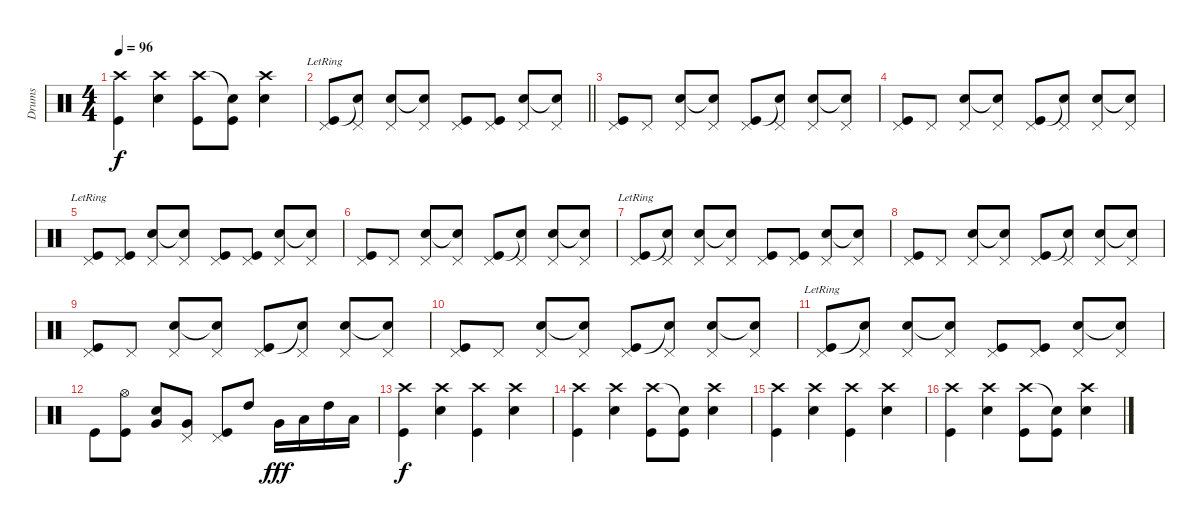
\track ("Drums" "Drums") {instrument percussion}
\staff {score}
\articulation defaults
\ts (4 4)
\tempo 96
\clef neutral
\ks c
("Kick (hit)" "Crash high (hit)").4{dy f} ("Snare (hit) 2" "Crash high (hit)").4 ("Kick (hit)" "Crash high (hit)").8 ("Kick (hit)" "Snare (hit)"{t}).8 ("Snare (hit) 2" "Crash high (hit)").4 |
\barLineRight lightlight
("Kick (hit)"{lr} "Pedal Hi-Hat (hit)").8 ("Snare (hit)"{t} "Pedal Hi-Hat (hit)").8 ("Snare (hit) 2" "Pedal Hi-Hat (hit)").8 ("Snare (hit)"{t} "Pedal Hi-Hat (hit)").8 ("Kick (hit)" "Pedal Hi-Hat (hit)").8 ("Kick (hit)" "Pedal Hi-Hat (hit)").8 ("Snare (hit) 2" "Pedal Hi-Hat (hit)").8 ("Snare (hit)"{t} "Pedal Hi-Hat (hit)").8 |
("Kick (hit)" "Pedal Hi-Hat (hit)").8 "Pedal Hi-Hat (hit)".8 ("Snare (hit) 2" "Pedal Hi-Hat (hit)").8 ("Snare (hit)"{t} "Pedal Hi-Hat (hit)").8 ("Kick (hit)" "Pedal Hi-Hat (hit)").8 ("Snare (hit)"{t} "Pedal Hi-Hat (hit)").8 ("Snare (hit) 2" "Pedal Hi-Hat (hit)").8 ("Snare (hit)"{t} "Pedal Hi-Hat (hit)").8 |
("Kick (hit)" "Pedal Hi-Hat (hit)").8 "Pedal Hi-Hat (hit)".8 ("Snare (hit) 2" "Pedal Hi-Hat (hit)").8 ("Snare (hit)"{t} "Pedal Hi-Hat (hit)").8 ("Kick (hit)" "Pedal Hi-Hat (hit)").8 ("Snare (hit)"{t} "Pedal Hi-Hat (hit)").8 ("Snare (hit) 2" "Pedal Hi-Hat (hit)").8 ("Snare (hit)"{t} "Pedal Hi-Hat (hit)").8 |
("Kick (hit)"{lr} "Pedal Hi-Hat (hit)").8 ("Kick (hit)" "Pedal Hi-Hat (hit)").8 ("Snare (hit) 2" "Pedal Hi-Hat (hit)").8 ("Snare (hit)"{t} "Pedal Hi-Hat (hit)").8 ("Kick (hit)" "Pedal Hi-Hat (hit)").8 ("Kick (hit)" "Pedal Hi-Hat (hit)").8 ("Snare (hit) 2" "Pedal Hi-Hat (hit)").8 ("Snare (hit)"{t} "Pedal Hi-Hat (hit)").8 |
("Kick (hit)" "Pedal Hi-Hat (hit)").8 "Pedal Hi-Hat (hit)".8 ("Snare (hit) 2" "Pedal Hi-Hat (hit)").8 ("Snare (hit)"{t} "Pedal Hi-Hat (hit)").8 ("Kick (hit)" "Pedal Hi-Hat (hit)").8 ("Snare (hit)"{t} "Pedal Hi-Hat (hit)").8 ("Snare (hit) 2" "Pedal Hi-Hat (hit)").8 ("Snare (hit)"{t} "Pedal Hi-Hat (hit)").8 |
("Kick (hit)"{lr} "Pedal Hi-Hat (hit)").8 ("Snare (hit)"{t} "Pedal Hi-Hat (hit)").8 ("Snare (hit) 2" "Pedal Hi-Hat (hit)").8 ("Snare (hit)"{t} "Pedal Hi-Hat (hit)").8 ("Kick (hit)" "Pedal Hi-Hat (hit)").8 ("Kick (hit)" "Pedal Hi-Hat (hit)").8 ("Snare (hit) 2" "Pedal Hi-Hat (hit)").8 ("Snare (hit)"{t} "Pedal Hi-Hat (hit)").8 |
("Kick (hit)" "Pedal Hi-Hat (hit)").8 "Pedal Hi-Hat (hit)".8 ("Snare (hit) 2" "Pedal Hi-Hat (hit)").8 ("Snare (hit)"{t} "Pedal Hi-Hat (hit)").8 ("Kick (hit)" "Pedal Hi-Hat (hit)").8 ("Snare (hit)"{t} "Pedal Hi-Hat (hit)").8 ("Snare (hit) 2" "Pedal Hi-Hat (hit)").8 ("Snare (hit)"{t} "Pedal Hi-Hat (hit)").8 |
("Kick (hit)" "Pedal Hi-Hat (hit)").8 "Pedal Hi-Hat (hit)".8 ("Snare (hit) 2" "Pedal Hi-Hat (hit)").8 ("Snare (hit)"{t} "Pedal Hi-Hat (hit)").8 ("Kick (hit)" "Pedal Hi-Hat (hit)").8 ("Snare (hit)"{t} "Pedal Hi-Hat (hit)").8 ("Snare (hit) 2" "Pedal Hi-Hat (hit)").8 ("Snare (hit)"{t} "Pedal Hi-Hat (hit)").8 |
("Kick (hit)" "Pedal Hi-Hat (hit)").8 "Pedal Hi-Hat (hit)".8 ("Snare (hit) 2" "Pedal Hi-Hat (hit)").8 ("Snare (hit)"{t} "Pedal Hi-Hat (hit)").8 ("Kick (hit)" "Pedal Hi-Hat (hit)").8 ("Snare (hit)"{t} "Pedal Hi-Hat (hit)").8 ("Snare (hit) 2" "Pedal Hi-Hat (hit)").8 ("Snare (hit)"{t} "Pedal Hi-Hat (hit)").8 |
("Kick (hit)"{lr} "Pedal Hi-Hat (hit)").8 ("Snare (hit)"{t} "Pedal Hi-Hat (hit)").8 ("Snare (hit) 2" "Pedal Hi-Hat (hit)").8 ("Snare (hit)"{t} "Pedal Hi-Hat (hit)").8 ("Kick (hit)" "Pedal Hi-Hat (hit)").8 ("Kick (hit)" "Pedal Hi-Hat (hit)").8 ("Snare (hit) 2" "Pedal Hi-Hat (hit)").8 ("Snare (hit)"{t} "Pedal Hi-Hat (hit)").8 |
"Kick (hit)".8 ("Kick (hit)" "Hi-Hat (open)").8 ("Very Low Tom (hit)" "Snare (hit) 2").8 ("Very Low Tom (hit)" "Pedal Hi-Hat (hit)").8 ("Kick (hit)" "Pedal Hi-Hat (hit)").8 "High Tom (hit)".8 "Very Low Tom (hit)".16{dy fff} "Low Tom (hit)".16 "High Tom (hit)".16 "Low Tom (hit)".16 |
("Kick (hit)" "Crash high (hit)").4{dy f} ("Snare (hit) 2" "Crash high (hit)").4 ("Kick (hit)" "Crash high (hit)").4 ("Snare (hit) 2" "Crash high (hit)").4 |
("Kick (hit)" "Crash high (hit)").4 ("Snare (hit) 2" "Crash high (hit)").4 ("Kick (hit)" "Crash high (hit)").8 ("Kick (hit)" "Snare (hit)"{t}).8 ("Snare (hit) 2" "Crash high (hit)").4 |
("Kick (hit)" "Crash high (hit)").4 ("Snare (hit) 2" "Crash high (hit)").4 ("Kick (hit)" "Crash high (hit)").4 ("Snare (hit) 2" "Crash high (hit)").4 |
("Kick (hit)" "Crash high (hit)").4 ("Snare (hit) 2" "Crash high (hit)").4 ("Kick (hit)" "Crash high (hit)").8 ("Kick (hit)" "Snare (hit)"{t}).8 ("Snare (hit) 2" "Crash high (hit)").4
